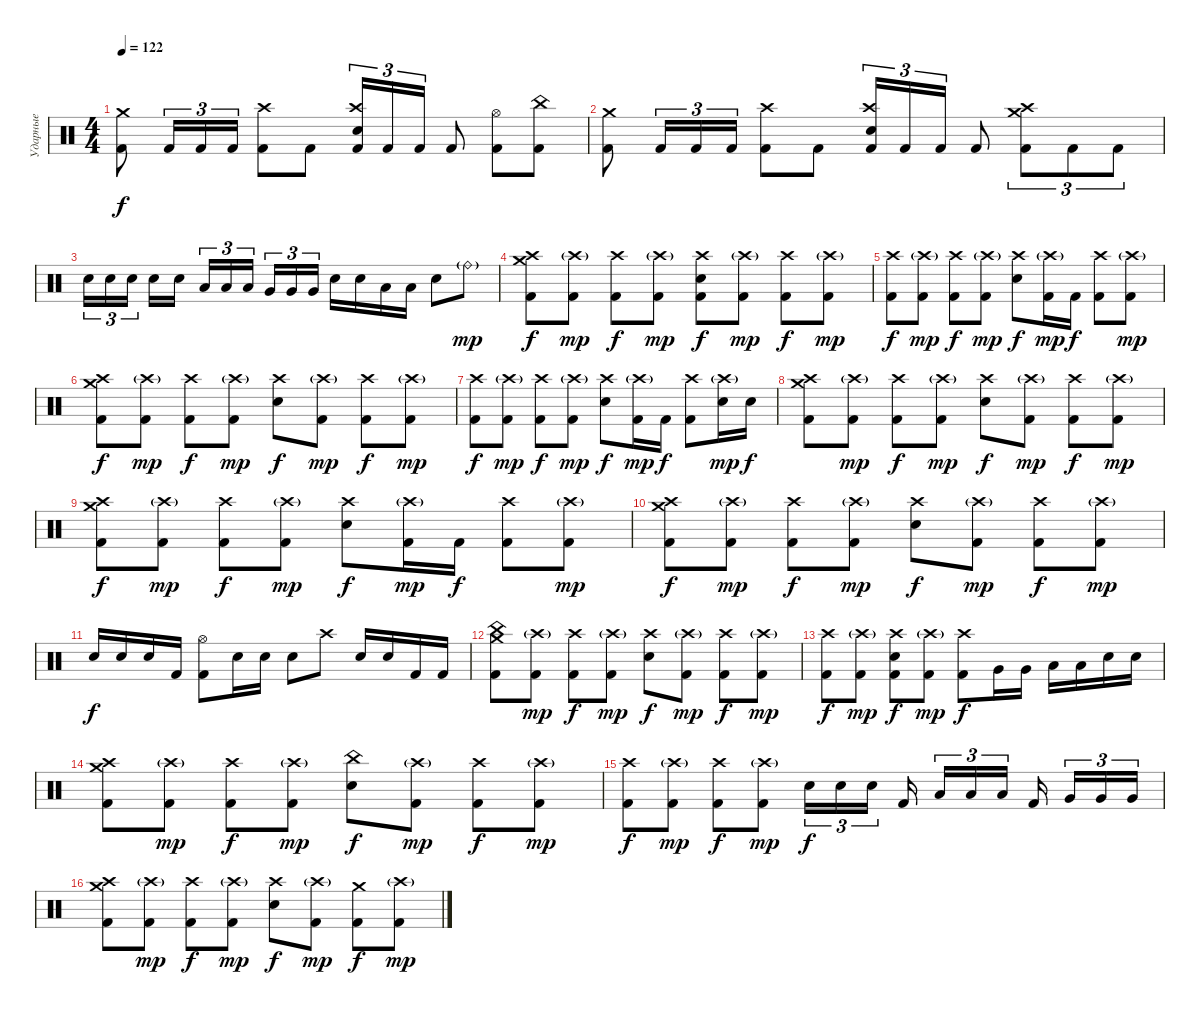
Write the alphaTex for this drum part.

\track ("Ударные" "Ударные") {instrument percussion}
\staff {score}
\articulation defaults
\ts (4 4)
\tempo 122
\clef neutral
\ks c
("Crash medium (hit)" "Kick (hit) 2").8{dy f} "Kick (hit) 2".16{tu (3 2)} "Kick (hit) 2".16{tu (3 2)} "Kick (hit) 2".16{tu (3 2)} ("Crash high (hit)" "Kick (hit) 2").8 "Kick (hit) 2".8 ("Crash high (hit)" "Electric Snare (hit)" "Kick (hit) 2").16{tu (3 2)} "Kick (hit) 2".16{tu (3 2)} "Kick (hit) 2".16{tu (3 2)} "Kick (hit) 2".8 ("Hi-Hat (open)" "Kick (hit) 2").8 ("China (hit)" "Kick (hit) 2").8 |
("Crash medium (hit)" "Kick (hit) 2").8 "Kick (hit) 2".16{tu (3 2)} "Kick (hit) 2".16{tu (3 2)} "Kick (hit) 2".16{tu (3 2)} ("Crash high (hit)" "Kick (hit) 2").8 "Kick (hit) 2".8 ("Crash high (hit)" "Electric Snare (hit)" "Kick (hit) 2").16{tu (3 2)} "Kick (hit) 2".16{tu (3 2)} "Kick (hit) 2".16{tu (3 2)} "Kick (hit) 2".8 ("Crash high (hit)" "Crash medium (hit)" "Kick (hit) 2").8{tu (3 2)} "Kick (hit) 2".8{tu (3 2)} "Kick (hit) 2".8{tu (3 2)} |
"Electric Snare (hit)".16{tu (3 2)} "Electric Snare (hit)".16{tu (3 2)} "Electric Snare (hit)".16{tu (3 2) beam splitsecondary} "Electric Snare (hit)".16 "Electric Snare (hit)".16 "Low Floor Tom (hit)".16{tu (3 2)} "Low Floor Tom (hit)".16{tu (3 2)} "Low Floor Tom (hit)".16{tu (3 2) beam splitsecondary} "Very Low Tom (hit)".16{tu (3 2)} "Very Low Tom (hit)".16{tu (3 2)} "Very Low Tom (hit)".16{tu (3 2)} "Electric Snare (hit)".16 "Electric Snare (hit)".16 "Low Floor Tom (hit)".16 "Low Floor Tom (hit)".16 "Electric Snare (hit)".8 "Ride (bell)"{g}.8{dy mp} |
("Crash medium (hit)" "Crash high (hit)" "Kick (hit) 2").8{dy f} ("Crash high (hit)"{g} "Kick (hit) 2").8{dy mp} ("Crash high (hit)" "Kick (hit) 2").8{dy f} ("Crash high (hit)"{g} "Kick (hit) 2").8{dy mp} ("Crash high (hit)" "Electric Snare (hit)" "Kick (hit) 2").8{dy f} ("Crash high (hit)"{g} "Kick (hit) 2").8{dy mp} ("Crash high (hit)" "Kick (hit) 2").8{dy f} ("Crash high (hit)"{g} "Kick (hit) 2").8{dy mp} |
("Crash high (hit)" "Kick (hit) 2").8{dy f} ("Crash high (hit)"{g} "Kick (hit) 2").8{dy mp} ("Crash high (hit)" "Kick (hit) 2").8{dy f} ("Crash high (hit)"{g} "Kick (hit) 2").8{dy mp} ("Crash high (hit)" "Electric Snare (hit)").8{dy f} ("Crash high (hit)"{g} "Kick (hit) 2").16{dy mp} "Kick (hit) 2".16{dy f} ("Crash high (hit)" "Kick (hit) 2").8 ("Crash high (hit)"{g} "Kick (hit) 2").8{dy mp} |
("Crash medium (hit)" "Crash high (hit)" "Kick (hit) 2").8{dy f} ("Crash high (hit)"{g} "Kick (hit) 2").8{dy mp} ("Crash high (hit)" "Kick (hit) 2").8{dy f} ("Crash high (hit)"{g} "Kick (hit) 2").8{dy mp} ("Crash high (hit)" "Electric Snare (hit)").8{dy f} ("Crash high (hit)"{g} "Kick (hit) 2").8{dy mp} ("Crash high (hit)" "Kick (hit) 2").8{dy f} ("Crash high (hit)"{g} "Kick (hit) 2").8{dy mp} |
("Crash high (hit)" "Kick (hit) 2").8{dy f} ("Crash high (hit)"{g} "Kick (hit) 2").8{dy mp} ("Crash high (hit)" "Kick (hit) 2").8{dy f} ("Crash high (hit)"{g} "Kick (hit) 2").8{dy mp} ("Crash high (hit)" "Electric Snare (hit)").8{dy f} ("Crash high (hit)"{g} "Kick (hit) 2").16{dy mp} "Kick (hit) 2".16{dy f} ("Crash high (hit)" "Kick (hit) 2").8 ("Crash high (hit)"{g} "Electric Snare (hit)").16{dy mp} "Electric Snare (hit)".16{dy f} |
("Crash medium (hit)" "Crash high (hit)" "Kick (hit) 2").8 ("Crash high (hit)"{g} "Kick (hit) 2").8{dy mp} ("Crash high (hit)" "Kick (hit) 2").8{dy f} ("Crash high (hit)"{g} "Kick (hit) 2").8{dy mp} ("Crash high (hit)" "Electric Snare (hit)").8{dy f} ("Crash high (hit)"{g} "Kick (hit) 2").8{dy mp} ("Crash high (hit)" "Kick (hit) 2").8{dy f} ("Crash high (hit)"{g} "Kick (hit) 2").8{dy mp} |
("Crash medium (hit)" "Crash high (hit)" "Kick (hit) 2").8{dy f} ("Crash high (hit)"{g} "Kick (hit) 2").8{dy mp} ("Crash high (hit)" "Kick (hit) 2").8{dy f} ("Crash high (hit)"{g} "Kick (hit) 2").8{dy mp} ("Crash high (hit)" "Electric Snare (hit)").8{dy f} ("Crash high (hit)"{g} "Kick (hit) 2").16{dy mp} "Kick (hit) 2".16{dy f} ("Crash high (hit)" "Kick (hit) 2").8 ("Crash high (hit)"{g} "Kick (hit) 2").8{dy mp} |
("Crash medium (hit)" "Crash high (hit)" "Kick (hit) 2").8{dy f} ("Crash high (hit)"{g} "Kick (hit) 2").8{dy mp} ("Crash high (hit)" "Kick (hit) 2").8{dy f} ("Crash high (hit)"{g} "Kick (hit) 2").8{dy mp} ("Crash high (hit)" "Electric Snare (hit)").8{dy f} ("Crash high (hit)"{g} "Kick (hit) 2").8{dy mp} ("Crash high (hit)" "Kick (hit) 2").8{dy f} ("Crash high (hit)"{g} "Kick (hit) 2").8{dy mp} |
"Electric Snare (hit)".16{dy f} "Electric Snare (hit)".16 "Electric Snare (hit)".16 "Kick (hit) 2".16 ("Hi-Hat (open)" "Kick (hit) 2").8 "Electric Snare (hit)".16 "Electric Snare (hit)".16 "Electric Snare (hit)".8 "Crash high (hit)".8 "Electric Snare (hit)".16 "Electric Snare (hit)".16 "Kick (hit) 2".16 "Kick (hit) 2".16 |
("Crash medium (hit)" "China (hit)" "Kick (hit) 2").8 ("Crash high (hit)"{g} "Kick (hit) 2").8{dy mp} ("Crash high (hit)" "Kick (hit) 2").8{dy f} ("Crash high (hit)"{g} "Kick (hit) 2").8{dy mp} ("Crash high (hit)" "Electric Snare (hit)").8{dy f} ("Crash high (hit)"{g} "Kick (hit) 2").8{dy mp} ("Crash high (hit)" "Kick (hit) 2").8{dy f} ("Crash high (hit)"{g} "Kick (hit) 2").8{dy mp} |
("Crash high (hit)" "Kick (hit) 2").8{dy f} ("Crash high (hit)"{g} "Kick (hit) 2").8{dy mp} ("Crash high (hit)" "Electric Snare (hit)" "Kick (hit) 2").8{dy f} ("Crash high (hit)"{g} "Kick (hit) 2").8{dy mp} ("Crash high (hit)" "Kick (hit) 2").8{dy f} "Very Low Tom (hit)".16 "Very Low Tom (hit)".16 "Low Floor Tom (hit)".16 "Low Floor Tom (hit)".16 "Electric Snare (hit)".16 "Electric Snare (hit)".16 |
("Crash medium (hit)" "Crash high (hit)" "Kick (hit) 2").8 ("Crash high (hit)"{g} "Kick (hit) 2").8{dy mp} ("Crash high (hit)" "Kick (hit) 2").8{dy f} ("Crash high (hit)"{g} "Kick (hit) 2").8{dy mp} ("China (hit)" "Electric Snare (hit)").8{dy f} ("Crash high (hit)"{g} "Kick (hit) 2").8{dy mp} ("Crash high (hit)" "Kick (hit) 2").8{dy f} ("Crash high (hit)"{g} "Kick (hit) 2").8{dy mp} |
("Crash high (hit)" "Kick (hit) 2").8{dy f} ("Crash high (hit)"{g} "Kick (hit) 2").8{dy mp} ("Crash high (hit)" "Kick (hit) 2").8{dy f} ("Crash high (hit)"{g} "Kick (hit) 2").8{dy mp} "Electric Snare (hit)".16{tu (3 2) dy f} "Electric Snare (hit)".16{tu (3 2)} "Electric Snare (hit)".16{tu (3 2) beam splitsecondary} "Kick (hit) 2".16{beam splitsecondary} "Low Floor Tom (hit)".16{tu (3 2)} "Low Floor Tom (hit)".16{tu (3 2)} "Low Floor Tom (hit)".16{tu (3 2) beam splitsecondary} "Kick (hit) 2".16{beam splitsecondary} "Very Low Tom (hit)".16{tu (3 2)} "Very Low Tom (hit)".16{tu (3 2)} "Very Low Tom (hit)".16{tu (3 2)} |
("Crash medium (hit)" "Crash high (hit)" "Kick (hit) 2").8 ("Crash high (hit)"{g} "Kick (hit) 2").8{dy mp} ("Crash high (hit)" "Kick (hit) 2").8{dy f} ("Crash high (hit)"{g} "Kick (hit) 2").8{dy mp} ("Crash high (hit)" "Electric Snare (hit)").8{dy f} ("Crash high (hit)"{g} "Kick (hit) 2").8{dy mp} ("Crash medium (hit)" "Kick (hit) 2").8{dy f} ("Crash high (hit)"{g} "Kick (hit) 2").8{dy mp}
